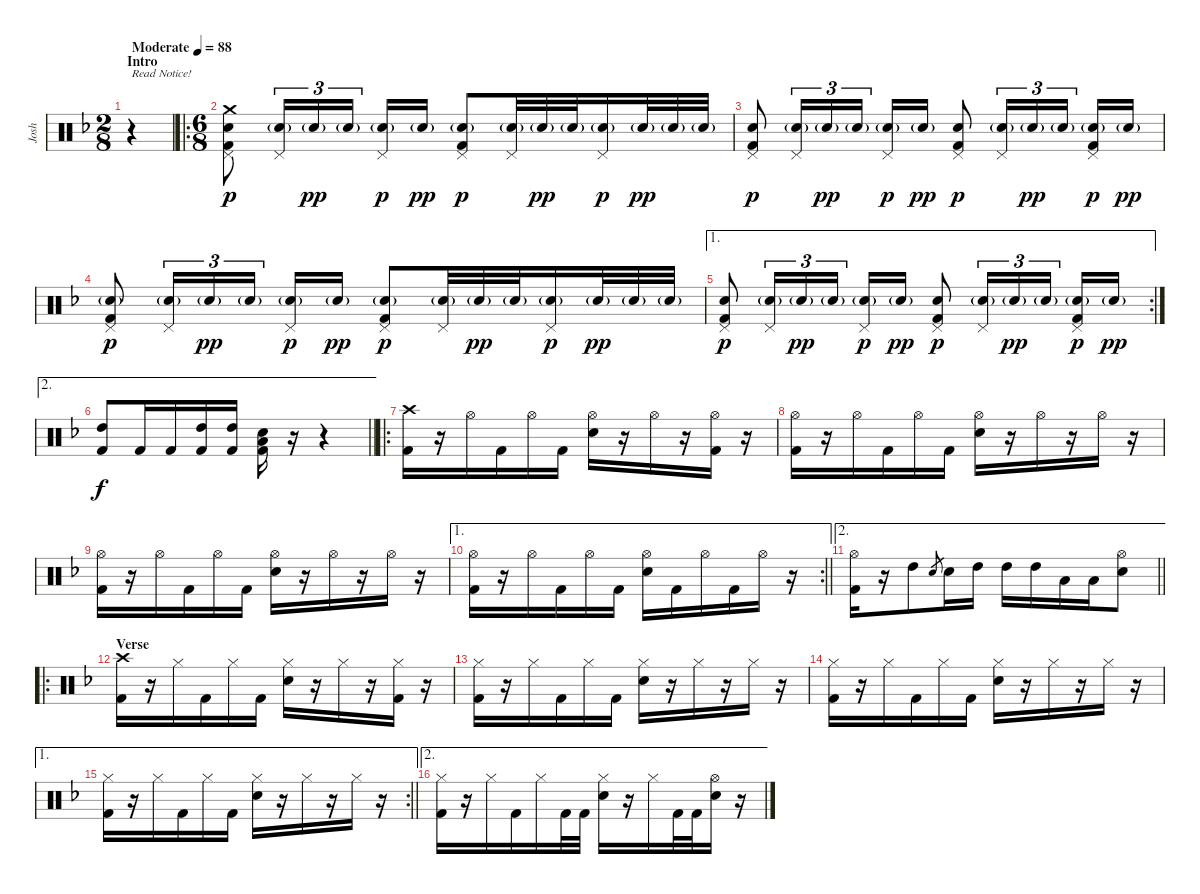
\track ("Josh" "Josh") {instrument percussion}
\staff {score}
\articulation defaults
\ts (2 8)
\section ("" "Intro")
\tempo (88 "Moderate")
\clef neutral
\ks f
r.4{txt "Read Notice!" dy p} |
\ro
\ts (6 8)
("Crash medium (hit)" "Snare (hit) 2" "Kick (hit) 2" "Pedal Hi-Hat (hit)").8{volume 8} ("Snare (hit) 2"{g} "Pedal Hi-Hat (hit)").16{tu (3 2)} "Snare (hit) 2"{g}.16{tu (3 2) dy pp} "Snare (hit) 2"{g}.16{tu (3 2) beam splitsecondary} ("Snare (hit) 2"{g} "Pedal Hi-Hat (hit)").16{dy p} "Snare (hit) 2"{g}.16{dy pp} ("Snare (hit) 2"{g} "Kick (hit) 2" "Pedal Hi-Hat (hit)").8{dy p} ("Snare (hit) 2"{g} "Pedal Hi-Hat (hit)").32 "Snare (hit) 2"{g}.32{dy pp} "Snare (hit) 2"{g}.32 ("Snare (hit) 2"{g} "Pedal Hi-Hat (hit)").16{dy p} "Snare (hit) 2"{g}.32{dy pp} "Snare (hit) 2"{g}.32 "Snare (hit) 2"{g}.32 |
("Snare (hit) 2" "Kick (hit) 2" "Pedal Hi-Hat (hit)").8{dy p} ("Snare (hit) 2"{g} "Pedal Hi-Hat (hit)").16{tu (3 2)} "Snare (hit) 2"{g}.16{tu (3 2) dy pp} "Snare (hit) 2"{g}.16{tu (3 2) beam splitsecondary} ("Snare (hit) 2"{g} "Pedal Hi-Hat (hit)").16{dy p} "Snare (hit) 2"{g}.16{dy pp} ("Snare (hit) 2" "Kick (hit) 2" "Pedal Hi-Hat (hit)").8{dy p} ("Snare (hit) 2"{g} "Pedal Hi-Hat (hit)").16{tu (3 2)} "Snare (hit) 2"{g}.16{tu (3 2) dy pp} "Snare (hit) 2"{g}.16{tu (3 2) beam splitsecondary} ("Snare (hit) 2"{g} "Kick (hit) 2" "Pedal Hi-Hat (hit)").16{dy p} "Snare (hit) 2"{g}.16{dy pp} |
("Snare (hit) 2"{g} "Kick (hit) 2" "Pedal Hi-Hat (hit)").8{dy p} ("Snare (hit) 2"{g} "Pedal Hi-Hat (hit)").16{tu (3 2)} "Snare (hit) 2"{g}.16{tu (3 2) dy pp} "Snare (hit) 2"{g}.16{tu (3 2) beam splitsecondary} ("Snare (hit) 2"{g} "Pedal Hi-Hat (hit)").16{dy p} "Snare (hit) 2"{g}.16{dy pp} ("Snare (hit) 2"{g} "Kick (hit) 2" "Pedal Hi-Hat (hit)").8{dy p} ("Snare (hit) 2"{g} "Pedal Hi-Hat (hit)").32 "Snare (hit) 2"{g}.32{dy pp} "Snare (hit) 2"{g}.32 ("Snare (hit) 2"{g} "Pedal Hi-Hat (hit)").16{dy p} "Snare (hit) 2"{g}.32{dy pp} "Snare (hit) 2"{g}.32 "Snare (hit) 2"{g}.32 |
\ae 1
\rc 2
("Snare (hit) 2" "Kick (hit) 2" "Pedal Hi-Hat (hit)").8{dy p} ("Snare (hit) 2"{g} "Pedal Hi-Hat (hit)").16{tu (3 2)} "Snare (hit) 2"{g}.16{tu (3 2) dy pp} "Snare (hit) 2"{g}.16{tu (3 2) beam splitsecondary} ("Snare (hit) 2"{g} "Pedal Hi-Hat (hit)").16{dy p} "Snare (hit) 2"{g}.16{dy pp} ("Snare (hit) 2" "Kick (hit) 2" "Pedal Hi-Hat (hit)").8{dy p} ("Snare (hit) 2"{g} "Pedal Hi-Hat (hit)").16{tu (3 2)} "Snare (hit) 2"{g}.16{tu (3 2) dy pp} "Snare (hit) 2"{g}.16{tu (3 2) beam splitsecondary} ("Snare (hit) 2"{g} "Kick (hit) 2" "Pedal Hi-Hat (hit)").16{dy p} "Snare (hit) 2"{g}.16{dy pp} |
\ae 2
\barLineRight lightlight
("High Tom (hit)" "Kick (hit) 2").8{dy f} "Kick (hit) 2".16 "Kick (hit) 2".16 ("High Tom (hit)" "Kick (hit) 2").16 ("High Tom (hit)" "Kick (hit) 2").16 ("Snare (hit) 2" "Low Tom (hit)" "Kick (hit) 2").16 r.16 r.4 |
\ro
("Crash high (hit)" "Kick (hit) 2").16{volume 12} r.16 "Hi-Hat (open)".16 "Kick (hit) 2".16 "Hi-Hat (open)".16 "Kick (hit) 2".16 ("Hi-Hat (open)" "Snare (hit) 2").16 r.16 "Hi-Hat (open)".16 r.16 ("Hi-Hat (open)" "Kick (hit) 2").16 r.16 |
("Hi-Hat (open)" "Kick (hit) 2").16 r.16 "Hi-Hat (open)".16 "Kick (hit) 2".16 "Hi-Hat (open)".16 "Kick (hit) 2".16 ("Hi-Hat (open)" "Snare (hit) 2").16 r.16 "Hi-Hat (open)".16 r.16 "Hi-Hat (open)".16 r.16 |
("Hi-Hat (open)" "Kick (hit) 2").16 r.16 "Hi-Hat (open)".16 "Kick (hit) 2".16 "Hi-Hat (open)".16 "Kick (hit) 2".16 ("Hi-Hat (open)" "Snare (hit) 2").16 r.16 "Hi-Hat (open)".16 r.16 "Hi-Hat (open)".16 r.16 |
\ae 1
\rc 2
\barLineRight lightlight
("Hi-Hat (open)" "Kick (hit) 2").16 r.16 "Hi-Hat (open)".16 "Kick (hit) 2".16 "Hi-Hat (open)".16 "Kick (hit) 2".16 ("Hi-Hat (open)" "Snare (hit) 2").16 "Kick (hit) 2".16 "Hi-Hat (open)".16 "Kick (hit) 2".16 "Hi-Hat (open)".16 r.16 |
\ae 2
\barLineRight lightlight
("Hi-Hat (open)" "Kick (hit) 2").16 r.16 "High Tom (hit)".8 "Snare (hit) 2".8{gr} "Snare (hit) 2".16 "High Tom (hit)".16 "High Tom (hit)".16 "High Tom (hit)".16 "Low Tom (hit)".16 "Low Tom (hit)".16 ("Hi-Hat (open)" "Snare (hit) 2").8 |
\ro
\section ("" "Verse")
("Crash high (hit)" "Kick (hit) 2").16 r.16 "Hi-Hat (closed)".16 "Kick (hit) 2".16 "Hi-Hat (closed)".16 "Kick (hit) 2".16 ("Hi-Hat (closed)" "Snare (hit) 2").16 r.16 "Hi-Hat (closed)".16 r.16 ("Hi-Hat (closed)" "Kick (hit) 2").16 r.16 |
("Hi-Hat (closed)" "Kick (hit) 2").16 r.16 "Hi-Hat (closed)".16 "Kick (hit) 2".16 "Hi-Hat (closed)".16 "Kick (hit) 2".16 ("Hi-Hat (closed)" "Snare (hit) 2").16 r.16 "Hi-Hat (closed)".16 r.16 "Hi-Hat (closed)".16 r.16 |
("Hi-Hat (closed)" "Kick (hit) 2").16 r.16 "Hi-Hat (closed)".16 "Kick (hit) 2".16 "Hi-Hat (closed)".16 "Kick (hit) 2".16 ("Hi-Hat (closed)" "Snare (hit) 2").16 r.16 "Hi-Hat (closed)".16 r.16 "Hi-Hat (closed)".16 r.16 |
\ae 1
\rc 2
\barLineRight lightlight
("Hi-Hat (closed)" "Kick (hit) 2").16 r.16 "Hi-Hat (closed)".16 "Kick (hit) 2".16 "Hi-Hat (closed)".16 "Kick (hit) 2".16 ("Hi-Hat (closed)" "Snare (hit) 2").16 r.16 "Hi-Hat (closed)".16 r.16 "Hi-Hat (closed)".16 r.16 |
\ae 2
("Hi-Hat (closed)" "Kick (hit) 2").16 r.16 "Hi-Hat (closed)".16 "Kick (hit) 2".16 "Hi-Hat (closed)".16 "Kick (hit) 2".32 "Kick (hit) 2".32 ("Hi-Hat (closed)" "Snare (hit) 2").16 r.16 "Hi-Hat (closed)".16 "Kick (hit) 2".32 "Kick (hit) 2".32 ("Hi-Hat (open)" "Snare (hit) 2").16 r.16
